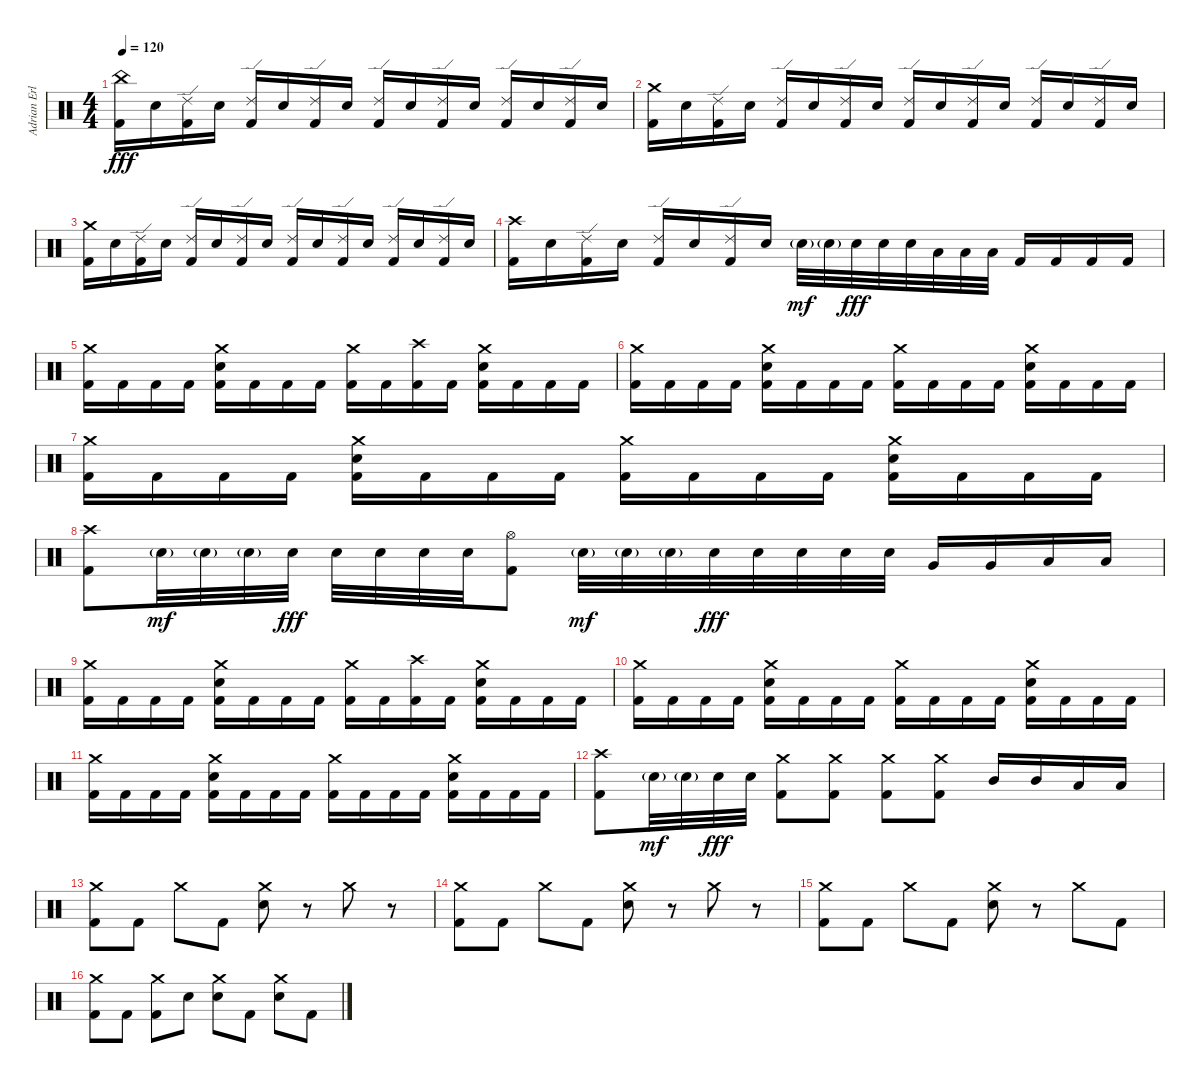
\track ("Adrian Erlandsson" "Adrian Erl") {instrument percussion}
\staff {score}
\articulation defaults
\ts (4 4)
\tempo 120
\clef neutral
\ks c
("China (hit)" "Kick (hit) 2").16{dy fff} "Electric Snare (hit)".16 ("Ride (edge) 2" "Kick (hit) 2").16 "Electric Snare (hit)".16 ("Ride (edge) 2" "Kick (hit) 2").16 "Electric Snare (hit)".16 ("Ride (edge) 2" "Kick (hit) 2").16 "Electric Snare (hit)".16 ("Ride (edge) 2" "Kick (hit) 2").16 "Electric Snare (hit)".16 ("Ride (edge) 2" "Kick (hit) 2").16 "Electric Snare (hit)".16 ("Ride (edge) 2" "Kick (hit) 2").16 "Electric Snare (hit)".16 ("Ride (edge) 2" "Kick (hit) 2").16 "Electric Snare (hit)".16 |
("Crash medium (hit)" "Kick (hit) 2").16 "Electric Snare (hit)".16 ("Ride (edge) 2" "Kick (hit) 2").16 "Electric Snare (hit)".16 ("Ride (edge) 2" "Kick (hit) 2").16 "Electric Snare (hit)".16 ("Ride (edge) 2" "Kick (hit) 2").16 "Electric Snare (hit)".16 ("Ride (edge) 2" "Kick (hit) 2").16 "Electric Snare (hit)".16 ("Ride (edge) 2" "Kick (hit) 2").16 "Electric Snare (hit)".16 ("Ride (edge) 2" "Kick (hit) 2").16 "Electric Snare (hit)".16 ("Ride (edge) 2" "Kick (hit) 2").16 "Electric Snare (hit)".16 |
("Crash medium (hit)" "Kick (hit) 2").16 "Electric Snare (hit)".16 ("Ride (edge) 2" "Kick (hit) 2").16 "Electric Snare (hit)".16 ("Ride (edge) 2" "Kick (hit) 2").16 "Electric Snare (hit)".16 ("Ride (edge) 2" "Kick (hit) 2").16 "Electric Snare (hit)".16 ("Ride (edge) 2" "Kick (hit) 2").16 "Electric Snare (hit)".16 ("Ride (edge) 2" "Kick (hit) 2").16 "Electric Snare (hit)".16 ("Ride (edge) 2" "Kick (hit) 2").16 "Electric Snare (hit)".16 ("Ride (edge) 2" "Kick (hit) 2").16 "Electric Snare (hit)".16 |
("Crash high (hit)" "Kick (hit) 2").16 "Electric Snare (hit)".16 ("Ride (edge) 2" "Kick (hit) 2").16 "Electric Snare (hit)".16 ("Ride (edge) 2" "Kick (hit) 2").16 "Electric Snare (hit)".16 ("Ride (edge) 2" "Kick (hit) 2").16 "Electric Snare (hit)".16 "Electric Snare (hit)"{g}.32{dy mf} "Electric Snare (hit)"{g}.32 "Electric Snare (hit)".32{dy fff} "Electric Snare (hit)".32 "Electric Snare (hit)".32 "Low Tom (hit)".32 "Low Tom (hit)".32 "Low Tom (hit)".32 "Kick (hit) 2".16 "Kick (hit) 2".16 "Kick (hit) 2".16 "Kick (hit) 2".16 |
("Crash medium (hit)" "Kick (hit) 2").16 "Kick (hit) 2".16 "Kick (hit) 2".16 "Kick (hit) 2".16 ("Crash medium (hit)" "Electric Snare (hit)" "Kick (hit) 2").16 "Kick (hit) 2".16 "Kick (hit) 2".16 "Kick (hit) 2".16 ("Crash medium (hit)" "Kick (hit) 2").16 "Kick (hit) 2".16 ("Crash high (hit)" "Kick (hit) 2").16 "Kick (hit) 2".16 ("Crash medium (hit)" "Electric Snare (hit)" "Kick (hit) 2").16 "Kick (hit) 2".16 "Kick (hit) 2".16 "Kick (hit) 2".16 |
("Crash medium (hit)" "Kick (hit) 2").16 "Kick (hit) 2".16 "Kick (hit) 2".16 "Kick (hit) 2".16 ("Crash medium (hit)" "Electric Snare (hit)" "Kick (hit) 2").16 "Kick (hit) 2".16 "Kick (hit) 2".16 "Kick (hit) 2".16 ("Crash medium (hit)" "Kick (hit) 2").16 "Kick (hit) 2".16 "Kick (hit) 2".16 "Kick (hit) 2".16 ("Crash medium (hit)" "Electric Snare (hit)" "Kick (hit) 2").16 "Kick (hit) 2".16 "Kick (hit) 2".16 "Kick (hit) 2".16 |
("Crash medium (hit)" "Kick (hit) 2").16 "Kick (hit) 2".16 "Kick (hit) 2".16 "Kick (hit) 2".16 ("Crash medium (hit)" "Electric Snare (hit)" "Kick (hit) 2").16 "Kick (hit) 2".16 "Kick (hit) 2".16 "Kick (hit) 2".16 ("Crash medium (hit)" "Kick (hit) 2").16 "Kick (hit) 2".16 "Kick (hit) 2".16 "Kick (hit) 2".16 ("Crash medium (hit)" "Electric Snare (hit)" "Kick (hit) 2").16 "Kick (hit) 2".16 "Kick (hit) 2".16 "Kick (hit) 2".16 |
("Crash high (hit)" "Kick (hit) 2").8 "Electric Snare (hit)"{g}.32{dy mf} "Electric Snare (hit)"{g}.32 "Electric Snare (hit)"{g}.32 "Electric Snare (hit)".32{dy fff} "Electric Snare (hit)".32 "Electric Snare (hit)".32 "Electric Snare (hit)".32 "Electric Snare (hit)".32 ("Hi-Hat (open)" "Kick (hit) 2").8 "Electric Snare (hit)"{g}.32{dy mf} "Electric Snare (hit)"{g}.32 "Electric Snare (hit)"{g}.32 "Electric Snare (hit)".32{dy fff} "Electric Snare (hit)".32 "Electric Snare (hit)".32 "Electric Snare (hit)".32 "Electric Snare (hit)".32 "Very Low Tom (hit)".16 "Very Low Tom (hit)".16 "Low Tom (hit)".16 "Low Tom (hit)".16 |
("Crash medium (hit)" "Kick (hit) 2").16 "Kick (hit) 2".16 "Kick (hit) 2".16 "Kick (hit) 2".16 ("Crash medium (hit)" "Electric Snare (hit)" "Kick (hit) 2").16 "Kick (hit) 2".16 "Kick (hit) 2".16 "Kick (hit) 2".16 ("Crash medium (hit)" "Kick (hit) 2").16 "Kick (hit) 2".16 ("Crash high (hit)" "Kick (hit) 2").16 "Kick (hit) 2".16 ("Crash medium (hit)" "Electric Snare (hit)" "Kick (hit) 2").16 "Kick (hit) 2".16 "Kick (hit) 2".16 "Kick (hit) 2".16 |
("Crash medium (hit)" "Kick (hit) 2").16 "Kick (hit) 2".16 "Kick (hit) 2".16 "Kick (hit) 2".16 ("Crash medium (hit)" "Electric Snare (hit)" "Kick (hit) 2").16 "Kick (hit) 2".16 "Kick (hit) 2".16 "Kick (hit) 2".16 ("Crash medium (hit)" "Kick (hit) 2").16 "Kick (hit) 2".16 "Kick (hit) 2".16 "Kick (hit) 2".16 ("Crash medium (hit)" "Electric Snare (hit)" "Kick (hit) 2").16 "Kick (hit) 2".16 "Kick (hit) 2".16 "Kick (hit) 2".16 |
("Crash medium (hit)" "Kick (hit) 2").16 "Kick (hit) 2".16 "Kick (hit) 2".16 "Kick (hit) 2".16 ("Crash medium (hit)" "Electric Snare (hit)" "Kick (hit) 2").16 "Kick (hit) 2".16 "Kick (hit) 2".16 "Kick (hit) 2".16 ("Crash medium (hit)" "Kick (hit) 2").16 "Kick (hit) 2".16 "Kick (hit) 2".16 "Kick (hit) 2".16 ("Crash medium (hit)" "Electric Snare (hit)" "Kick (hit) 2").16 "Kick (hit) 2".16 "Kick (hit) 2".16 "Kick (hit) 2".16 |
("Crash high (hit)" "Kick (hit) 2").8 "Electric Snare (hit)"{g}.32{dy mf} "Electric Snare (hit)"{g}.32 "Electric Snare (hit)".32{dy fff} "Electric Snare (hit)".32 ("Crash medium (hit)" "Kick (hit) 2").8 ("Crash medium (hit)" "Kick (hit) 2").8 ("Crash medium (hit)" "Kick (hit) 2").8 ("Crash medium (hit)" "Kick (hit) 2").8 "Mid Tom (hit)".16 "Mid Tom (hit)".16 "Low Tom (hit)".16 "Low Tom (hit)".16 |
("Crash medium (hit)" "Kick (hit) 2").8 "Kick (hit) 2".8 "Crash medium (hit)".8 "Kick (hit) 2".8 ("Crash medium (hit)" "Electric Snare (hit)").8 r.8 "Crash medium (hit)".8 r.8 |
("Crash medium (hit)" "Kick (hit) 2").8 "Kick (hit) 2".8 "Crash medium (hit)".8 "Kick (hit) 2".8 ("Crash medium (hit)" "Electric Snare (hit)").8 r.8 "Crash medium (hit)".8 r.8 |
("Crash medium (hit)" "Kick (hit) 2").8 "Kick (hit) 2".8 "Crash medium (hit)".8 "Kick (hit) 2".8 ("Crash medium (hit)" "Electric Snare (hit)").8 r.8 "Crash medium (hit)".8 "Kick (hit) 2".8 |
("Crash medium (hit)" "Kick (hit) 2").8 "Kick (hit) 2".8 ("Crash medium (hit)" "Kick (hit) 2").8 "Electric Snare (hit)".8 ("Crash medium (hit)" "Electric Snare (hit)").8 "Kick (hit) 2".8 ("Crash medium (hit)" "Electric Snare (hit)").8 "Kick (hit) 2".8
